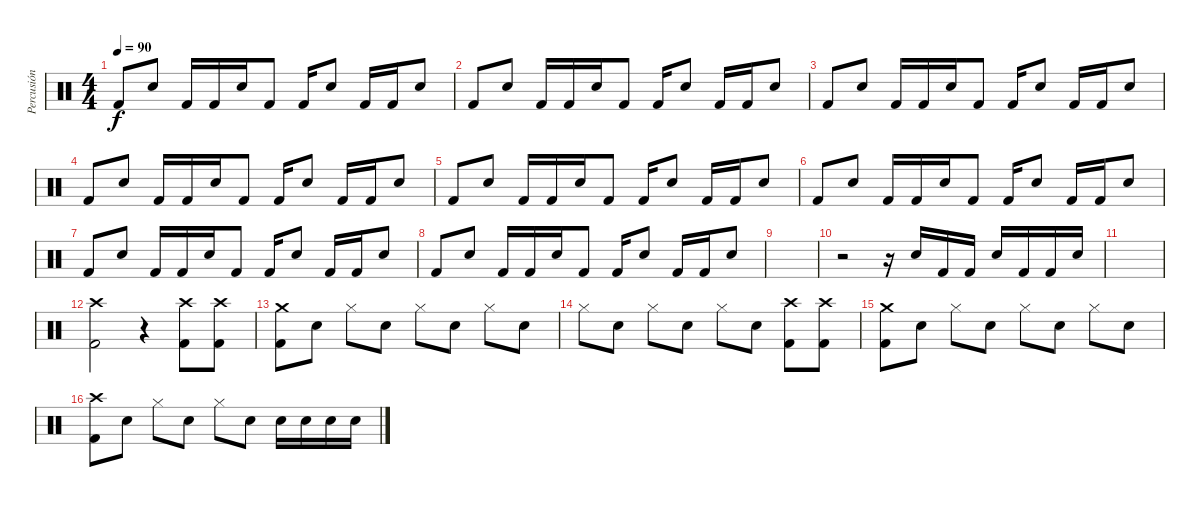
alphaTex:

\track ("Percusión" "Percusión") {instrument percussion}
\staff {score}
\articulation defaults
\ts (4 4)
\tempo 90
\clef neutral
\ks c "Kick (hit) 2".8{dy f} "Snare (hit) 2".8 "Kick (hit) 2".16 "Kick (hit) 2".16 "Snare (hit) 2".16 "Kick (hit) 2".8 "Kick (hit) 2".16 "Snare (hit) 2".8 "Kick (hit) 2".16 "Kick (hit) 2".16 "Snare (hit) 2".8
|
"Kick (hit) 2".8 "Snare (hit) 2".8 "Kick (hit) 2".16 "Kick (hit) 2".16 "Snare (hit) 2".16 "Kick (hit) 2".8 "Kick (hit) 2".16 "Snare (hit) 2".8 "Kick (hit) 2".16 "Kick (hit) 2".16 "Snare (hit) 2".8 |
"Kick (hit) 2".8 "Snare (hit) 2".8 "Kick (hit) 2".16 "Kick (hit) 2".16 "Snare (hit) 2".16 "Kick (hit) 2".8 "Kick (hit) 2".16 "Snare (hit) 2".8 "Kick (hit) 2".16 "Kick (hit) 2".16 "Snare (hit) 2".8 |
"Kick (hit) 2".8 "Snare (hit) 2".8 "Kick (hit) 2".16 "Kick (hit) 2".16 "Snare (hit) 2".16 "Kick (hit) 2".8 "Kick (hit) 2".16 "Snare (hit) 2".8 "Kick (hit) 2".16 "Kick (hit) 2".16 "Snare (hit) 2".8 |
"Kick (hit) 2".8 "Snare (hit) 2".8 "Kick (hit) 2".16 "Kick (hit) 2".16 "Snare (hit) 2".16 "Kick (hit) 2".8 "Kick (hit) 2".16 "Snare (hit) 2".8 "Kick (hit) 2".16 "Kick (hit) 2".16 "Snare (hit) 2".8 |
"Kick (hit) 2".8 "Snare (hit) 2".8 "Kick (hit) 2".16 "Kick (hit) 2".16 "Snare (hit) 2".16 "Kick (hit) 2".8 "Kick (hit) 2".16 "Snare (hit) 2".8 "Kick (hit) 2".16 "Kick (hit) 2".16 "Snare (hit) 2".8 |
"Kick (hit) 2".8 "Snare (hit) 2".8 "Kick (hit) 2".16 "Kick (hit) 2".16 "Snare (hit) 2".16 "Kick (hit) 2".8 "Kick (hit) 2".16 "Snare (hit) 2".8 "Kick (hit) 2".16 "Kick (hit) 2".16 "Snare (hit) 2".8 |
"Kick (hit) 2".8 "Snare (hit) 2".8 "Kick (hit) 2".16 "Kick (hit) 2".16 "Snare (hit) 2".16 "Kick (hit) 2".8 "Kick (hit) 2".16 "Snare (hit) 2".8 "Kick (hit) 2".16 "Kick (hit) 2".16 "Snare (hit) 2".8 |
|
r.2 r.16 "Snare (hit) 2".16 "Kick (hit) 2".16 "Kick (hit) 2".16 "Snare (hit) 2".16 "Kick (hit) 2".16 "Kick (hit) 2".16 "Snare (hit) 2".16 |
|
("Crash high (hit)" "Kick (hit) 2").2 r.4 ("Crash high (hit)" "Kick (hit) 2").8 ("Crash high (hit)" "Kick (hit) 2").8 |
("Crash medium (hit)" "Kick (hit) 2").8 "Snare (hit) 2".8 "Hi-Hat (closed)".8 "Snare (hit) 2".8 "Hi-Hat (closed)".8 "Snare (hit) 2".8 "Hi-Hat (closed)".8 "Snare (hit) 2".8 |
"Hi-Hat (closed)".8 "Snare (hit) 2".8 "Hi-Hat (closed)".8 "Snare (hit) 2".8 "Hi-Hat (closed)".8 "Snare (hit) 2".8 ("Crash high (hit)" "Kick (hit) 2").8 ("Crash high (hit)" "Kick (hit) 2").8 |
("Crash medium (hit)" "Kick (hit) 2").8 "Snare (hit) 2".8 "Hi-Hat (closed)".8 "Snare (hit) 2".8 "Hi-Hat (closed)".8 "Snare (hit) 2".8 "Hi-Hat (closed)".8 "Snare (hit) 2".8 |
("Crash high (hit)" "Kick (hit) 2").8 "Snare (hit) 2".8 "Hi-Hat (closed)".8 "Snare (hit) 2".8 "Hi-Hat (closed)".8 "Snare (hit) 2".8 "Snare (hit) 2".16 "Snare (hit) 2".16 "Snare (hit) 2".16 "Snare (hit) 2".16
